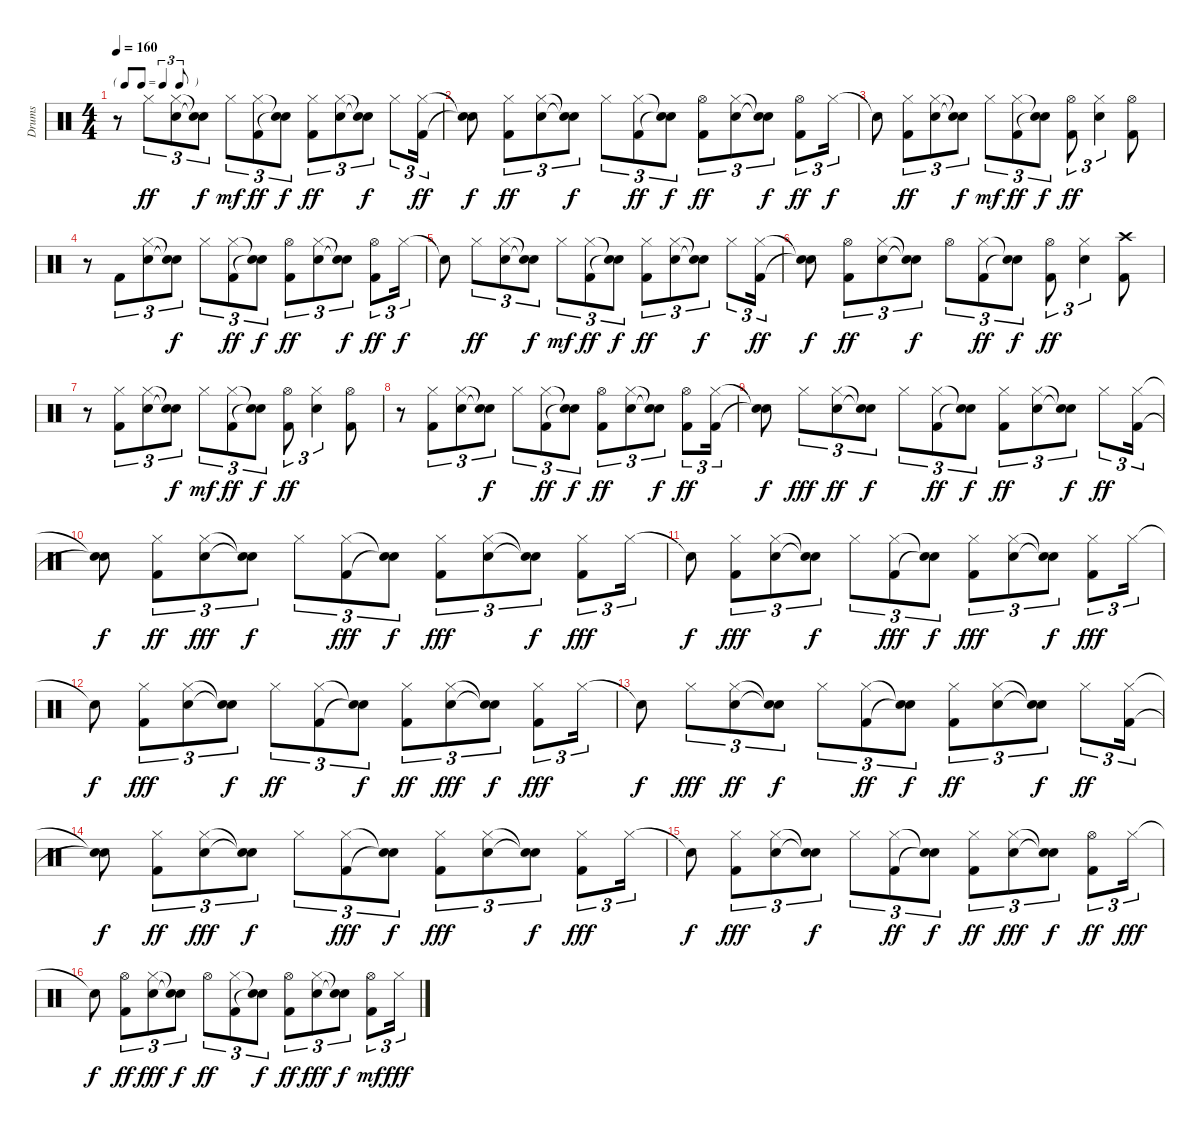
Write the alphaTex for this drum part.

\track ("Drums" "Drums") {instrument percussion}
\staff {score}
\articulation defaults
\ts (4 4)
\tf triplet8th
\tempo 160
\clef neutral
\ks c
r.8{dy fff} "Hi-Hat (closed)".8{tu (3 2) dy ff} ("Electric Snare (hit)" "Hi-Hat (closed)").8{tu (3 2)} ("Snare (hit)"{t} "Snare (hit)"{t}).8{tu (3 2) dy f} "Hi-Hat (closed)".8{tu (3 2) dy mf} ("Kick (hit) 2" "Hi-Hat (closed)").8{tu (3 2) dy ff} ("Snare (hit)"{t} "Snare (hit)"{t}).8{tu (3 2) dy f} ("Kick (hit) 2" "Hi-Hat (closed)").8{tu (3 2) dy ff} ("Electric Snare (hit)" "Hi-Hat (closed)").8{tu (3 2)} ("Snare (hit)"{t} "Snare (hit)"{t}).8{tu (3 2) dy f} "Hi-Hat (closed)".8{tu (3 2)} ("Kick (hit) 2" "Hi-Hat (closed)").16{tu (3 2) dy ff} |
("Snare (hit)"{t} "Snare (hit)"{t}).8{dy f} ("Kick (hit) 2" "Hi-Hat (closed)").8{tu (3 2) dy ff} ("Hi-Hat (closed)" "Electric Snare (hit)").8{tu (3 2)} ("Snare (hit)"{t} "Snare (hit)"{t}).8{tu (3 2) dy f} "Hi-Hat (closed)".8{tu (3 2)} ("Kick (hit) 2" "Hi-Hat (closed)").8{tu (3 2) dy ff} ("Snare (hit)"{t} "Snare (hit)"{t}).8{tu (3 2) dy f} ("Kick (hit) 2" "Hi-Hat (open)").8{tu (3 2) dy ff} ("Electric Snare (hit)" "Hi-Hat (closed)").8{tu (3 2)} ("Snare (hit)"{t} "Snare (hit)"{t}).8{tu (3 2) dy f} ("Kick (hit) 2" "Hi-Hat (open)").8{tu (3 2) dy ff} "Hi-Hat (closed)".16{tu (3 2) dy f} |
"Snare (hit)"{t}.8 ("Kick (hit) 2" "Hi-Hat (closed)").8{tu (3 2) dy ff} ("Hi-Hat (closed)" "Electric Snare (hit)").8{tu (3 2)} ("Snare (hit)"{t} "Snare (hit)"{t}).8{tu (3 2) dy f} "Hi-Hat (closed)".8{tu (3 2) dy mf} ("Kick (hit) 2" "Hi-Hat (closed)").8{tu (3 2) dy ff} ("Snare (hit)"{t} "Snare (hit)"{t}).8{tu (3 2) dy f} ("Kick (hit) 2" "Hi-Hat (open)").8{tu (3 2) dy ff} ("Hi-Hat (closed)" "Electric Snare (hit)").4{tu (3 2)} ("Kick (hit) 2" "Hi-Hat (open)").8 |
r.8 "Kick (hit) 2".8{tu (3 2)} ("Hi-Hat (closed)" "Electric Snare (hit)").8{tu (3 2)} ("Snare (hit)"{t} "Snare (hit)"{t}).8{tu (3 2) dy f} "Hi-Hat (closed)".8{tu (3 2)} ("Kick (hit) 2" "Hi-Hat (closed)").8{tu (3 2) dy ff} ("Snare (hit)"{t} "Snare (hit)"{t}).8{tu (3 2) dy f} ("Kick (hit) 2" "Hi-Hat (open)").8{tu (3 2) dy ff} ("Hi-Hat (closed)" "Electric Snare (hit)").8{tu (3 2)} ("Snare (hit)"{t} "Snare (hit)"{t}).8{tu (3 2) dy f} ("Kick (hit) 2" "Hi-Hat (open)").8{tu (3 2) dy ff} "Hi-Hat (closed)".16{tu (3 2) dy f} |
"Snare (hit)"{t}.8 "Hi-Hat (closed)".8{tu (3 2) dy ff} ("Electric Snare (hit)" "Hi-Hat (closed)").8{tu (3 2)} ("Snare (hit)"{t} "Snare (hit)"{t}).8{tu (3 2) dy f} "Hi-Hat (closed)".8{tu (3 2) dy mf} ("Kick (hit) 2" "Hi-Hat (closed)").8{tu (3 2) dy ff} ("Snare (hit)"{t} "Snare (hit)"{t}).8{tu (3 2) dy f} ("Kick (hit) 2" "Hi-Hat (closed)").8{tu (3 2) dy ff} ("Electric Snare (hit)" "Hi-Hat (closed)").8{tu (3 2)} ("Snare (hit)"{t} "Snare (hit)"{t}).8{tu (3 2) dy f} "Hi-Hat (closed)".8{tu (3 2)} ("Kick (hit) 2" "Hi-Hat (closed)").16{tu (3 2) dy ff} |
("Snare (hit)"{t} "Snare (hit)"{t}).8{dy f} ("Kick (hit) 2" "Hi-Hat (open)").8{tu (3 2) dy ff} ("Hi-Hat (closed)" "Electric Snare (hit)").8{tu (3 2)} ("Snare (hit)"{t} "Snare (hit)"{t}).8{tu (3 2) dy f} "Hi-Hat (open)".8{tu (3 2)} ("Kick (hit) 2" "Hi-Hat (closed)").8{tu (3 2) dy ff} ("Snare (hit)"{t} "Snare (hit)"{t}).8{tu (3 2) dy f} ("Kick (hit) 2" "Hi-Hat (open)").8{tu (3 2) dy ff} ("Electric Snare (hit)" "Hi-Hat (closed)").4{tu (3 2)} ("Kick (hit) 2" "Crash high (hit)").8 |
r.8 ("Kick (hit) 2" "Hi-Hat (closed)").8{tu (3 2)} ("Hi-Hat (closed)" "Electric Snare (hit)").8{tu (3 2)} ("Snare (hit)"{t} "Snare (hit)"{t}).8{tu (3 2) dy f} "Hi-Hat (closed)".8{tu (3 2) dy mf} ("Kick (hit) 2" "Hi-Hat (closed)").8{tu (3 2) dy ff} ("Snare (hit)"{t} "Snare (hit)"{t}).8{tu (3 2) dy f} ("Kick (hit) 2" "Hi-Hat (open)").8{tu (3 2) dy ff} ("Hi-Hat (closed)" "Electric Snare (hit)").4{tu (3 2)} ("Kick (hit) 2" "Hi-Hat (open)").8 |
r.8 ("Kick (hit) 2" "Hi-Hat (closed)").8{tu (3 2)} ("Hi-Hat (closed)" "Electric Snare (hit)").8{tu (3 2)} ("Snare (hit)"{t} "Snare (hit)"{t}).8{tu (3 2) dy f} "Hi-Hat (closed)".8{tu (3 2)} ("Kick (hit) 2" "Hi-Hat (closed)").8{tu (3 2) dy ff} ("Snare (hit)"{t} "Snare (hit)"{t}).8{tu (3 2) dy f} ("Kick (hit) 2" "Hi-Hat (open)").8{tu (3 2) dy ff} ("Hi-Hat (closed)" "Electric Snare (hit)").8{tu (3 2)} ("Snare (hit)"{t} "Snare (hit)"{t}).8{tu (3 2) dy f} ("Kick (hit) 2" "Hi-Hat (open)").8{tu (3 2) dy ff} ("Kick (hit) 2" "Hi-Hat (closed)").16{tu (3 2)} |
("Snare (hit)"{t} "Snare (hit)"{t}).8{dy f} "Hi-Hat (closed)".8{tu (3 2) dy fff} ("Electric Snare (hit)" "Hi-Hat (closed)").8{tu (3 2) dy ff} ("Snare (hit)"{t} "Snare (hit)"{t}).8{tu (3 2) dy f} "Hi-Hat (closed)".8{tu (3 2)} ("Kick (hit) 2" "Hi-Hat (closed)").8{tu (3 2) dy ff} ("Snare (hit)"{t} "Snare (hit)"{t}).8{tu (3 2) dy f} ("Kick (hit) 2" "Hi-Hat (closed)").8{tu (3 2) dy ff} ("Electric Snare (hit)" "Hi-Hat (closed)").8{tu (3 2)} ("Snare (hit)"{t} "Snare (hit)"{t}).8{tu (3 2) dy f} "Hi-Hat (closed)".8{tu (3 2) dy ff} ("Kick (hit) 2" "Hi-Hat (closed)").16{tu (3 2)} |
("Snare (hit)"{t} "Snare (hit)"{t}).8{dy f} ("Kick (hit) 2" "Hi-Hat (closed)").8{tu (3 2) dy ff} ("Hi-Hat (closed)" "Electric Snare (hit)").8{tu (3 2) dy fff} ("Snare (hit)"{t} "Snare (hit)"{t}).8{tu (3 2) dy f} "Hi-Hat (closed)".8{tu (3 2)} ("Kick (hit) 2" "Hi-Hat (closed)").8{tu (3 2) dy fff} ("Snare (hit)"{t} "Snare (hit)"{t}).8{tu (3 2) dy f} ("Kick (hit) 2" "Hi-Hat (closed)").8{tu (3 2) dy fff} ("Electric Snare (hit)" "Hi-Hat (closed)").8{tu (3 2)} ("Snare (hit)"{t} "Snare (hit)"{t}).8{tu (3 2) dy f} ("Kick (hit) 2" "Hi-Hat (closed)").8{tu (3 2) dy fff} "Hi-Hat (closed)".16{tu (3 2)} |
"Snare (hit)"{t}.8{dy f} ("Kick (hit) 2" "Hi-Hat (closed)").8{tu (3 2) dy fff} ("Hi-Hat (closed)" "Electric Snare (hit)").8{tu (3 2)} ("Snare (hit)"{t} "Snare (hit)"{t}).8{tu (3 2) dy f} "Hi-Hat (closed)".8{tu (3 2)} ("Kick (hit) 2" "Hi-Hat (closed)").8{tu (3 2) dy fff} ("Snare (hit)"{t} "Snare (hit)"{t}).8{tu (3 2) dy f} ("Kick (hit) 2" "Hi-Hat (closed)").8{tu (3 2) dy fff} ("Hi-Hat (closed)" "Electric Snare (hit)").8{tu (3 2)} ("Snare (hit)"{t} "Snare (hit)"{t}).8{tu (3 2) dy f} ("Kick (hit) 2" "Hi-Hat (closed)").8{tu (3 2) dy fff} "Hi-Hat (closed)".16{tu (3 2)} |
"Snare (hit)"{t}.8{dy f} ("Kick (hit) 2" "Hi-Hat (closed)").8{tu (3 2) dy fff} ("Hi-Hat (closed)" "Electric Snare (hit)").8{tu (3 2)} ("Snare (hit)"{t} "Snare (hit)"{t}).8{tu (3 2) dy f} "Hi-Hat (closed)".8{tu (3 2) dy ff} ("Kick (hit) 2" "Hi-Hat (closed)").8{tu (3 2)} ("Snare (hit)"{t} "Snare (hit)"{t}).8{tu (3 2) dy f} ("Kick (hit) 2" "Hi-Hat (closed)").8{tu (3 2) dy ff} ("Hi-Hat (closed)" "Electric Snare (hit)").8{tu (3 2) dy fff} ("Snare (hit)"{t} "Snare (hit)"{t}).8{tu (3 2) dy f} ("Kick (hit) 2" "Hi-Hat (closed)").8{tu (3 2) dy fff} "Hi-Hat (closed)".16{tu (3 2)} |
"Snare (hit)"{t}.8{dy f} "Hi-Hat (closed)".8{tu (3 2) dy fff} ("Electric Snare (hit)" "Hi-Hat (closed)").8{tu (3 2) dy ff} ("Snare (hit)"{t} "Snare (hit)"{t}).8{tu (3 2) dy f} "Hi-Hat (closed)".8{tu (3 2)} ("Kick (hit) 2" "Hi-Hat (closed)").8{tu (3 2) dy ff} ("Snare (hit)"{t} "Snare (hit)"{t}).8{tu (3 2) dy f} ("Kick (hit) 2" "Hi-Hat (closed)").8{tu (3 2) dy ff} ("Electric Snare (hit)" "Hi-Hat (closed)").8{tu (3 2)} ("Snare (hit)"{t} "Snare (hit)"{t}).8{tu (3 2) dy f} "Hi-Hat (closed)".8{tu (3 2) dy ff} ("Kick (hit) 2" "Hi-Hat (closed)").16{tu (3 2)} |
("Snare (hit)"{t} "Snare (hit)"{t}).8{dy f} ("Kick (hit) 2" "Hi-Hat (closed)").8{tu (3 2) dy ff} ("Hi-Hat (closed)" "Electric Snare (hit)").8{tu (3 2) dy fff} ("Snare (hit)"{t} "Snare (hit)"{t}).8{tu (3 2) dy f} "Hi-Hat (closed)".8{tu (3 2)} ("Kick (hit) 2" "Hi-Hat (closed)").8{tu (3 2) dy fff} ("Snare (hit)"{t} "Snare (hit)"{t}).8{tu (3 2) dy f} ("Kick (hit) 2" "Hi-Hat (closed)").8{tu (3 2) dy fff} ("Electric Snare (hit)" "Hi-Hat (closed)").8{tu (3 2)} ("Snare (hit)"{t} "Snare (hit)"{t}).8{tu (3 2) dy f} ("Kick (hit) 2" "Hi-Hat (closed)").8{tu (3 2) dy fff} "Hi-Hat (closed)".16{tu (3 2)} |
"Snare (hit)"{t}.8{dy f} ("Kick (hit) 2" "Hi-Hat (closed)").8{tu (3 2) dy fff} ("Hi-Hat (closed)" "Electric Snare (hit)").8{tu (3 2)} ("Snare (hit)"{t} "Snare (hit)"{t}).8{tu (3 2) dy f} "Hi-Hat (closed)".8{tu (3 2)} ("Kick (hit) 2" "Hi-Hat (closed)").8{tu (3 2) dy ff} ("Snare (hit)"{t} "Snare (hit)"{t}).8{tu (3 2) dy f} ("Kick (hit) 2" "Hi-Hat (closed)").8{tu (3 2) dy ff} ("Hi-Hat (closed)" "Electric Snare (hit)").8{tu (3 2) dy fff} ("Snare (hit)"{t} "Snare (hit)"{t}).8{tu (3 2) dy f} ("Kick (hit) 2" "Hi-Hat (open)").8{tu (3 2) dy ff} "Hi-Hat (closed)".16{tu (3 2) dy fff} |
"Snare (hit)"{t}.8{dy f} ("Kick (hit) 2" "Hi-Hat (open)").8{tu (3 2) dy ff} ("Hi-Hat (closed)" "Electric Snare (hit)").8{tu (3 2) dy fff} ("Snare (hit)"{t} "Snare (hit)"{t}).8{tu (3 2) dy f} "Hi-Hat (open)".8{tu (3 2) dy ff} ("Kick (hit) 2" "Hi-Hat (closed)").8{tu (3 2)} ("Snare (hit)"{t} "Snare (hit)"{t}).8{tu (3 2) dy f} ("Kick (hit) 2" "Hi-Hat (open)").8{tu (3 2) dy ff} ("Hi-Hat (closed)" "Electric Snare (hit)").8{tu (3 2) dy fff} ("Snare (hit)"{t} "Snare (hit)"{t}).8{tu (3 2) dy f} ("Kick (hit) 2" "Hi-Hat (open)").8{tu (3 2) dy mf} "Hi-Hat (closed)".16{tu (3 2) dy fff}
